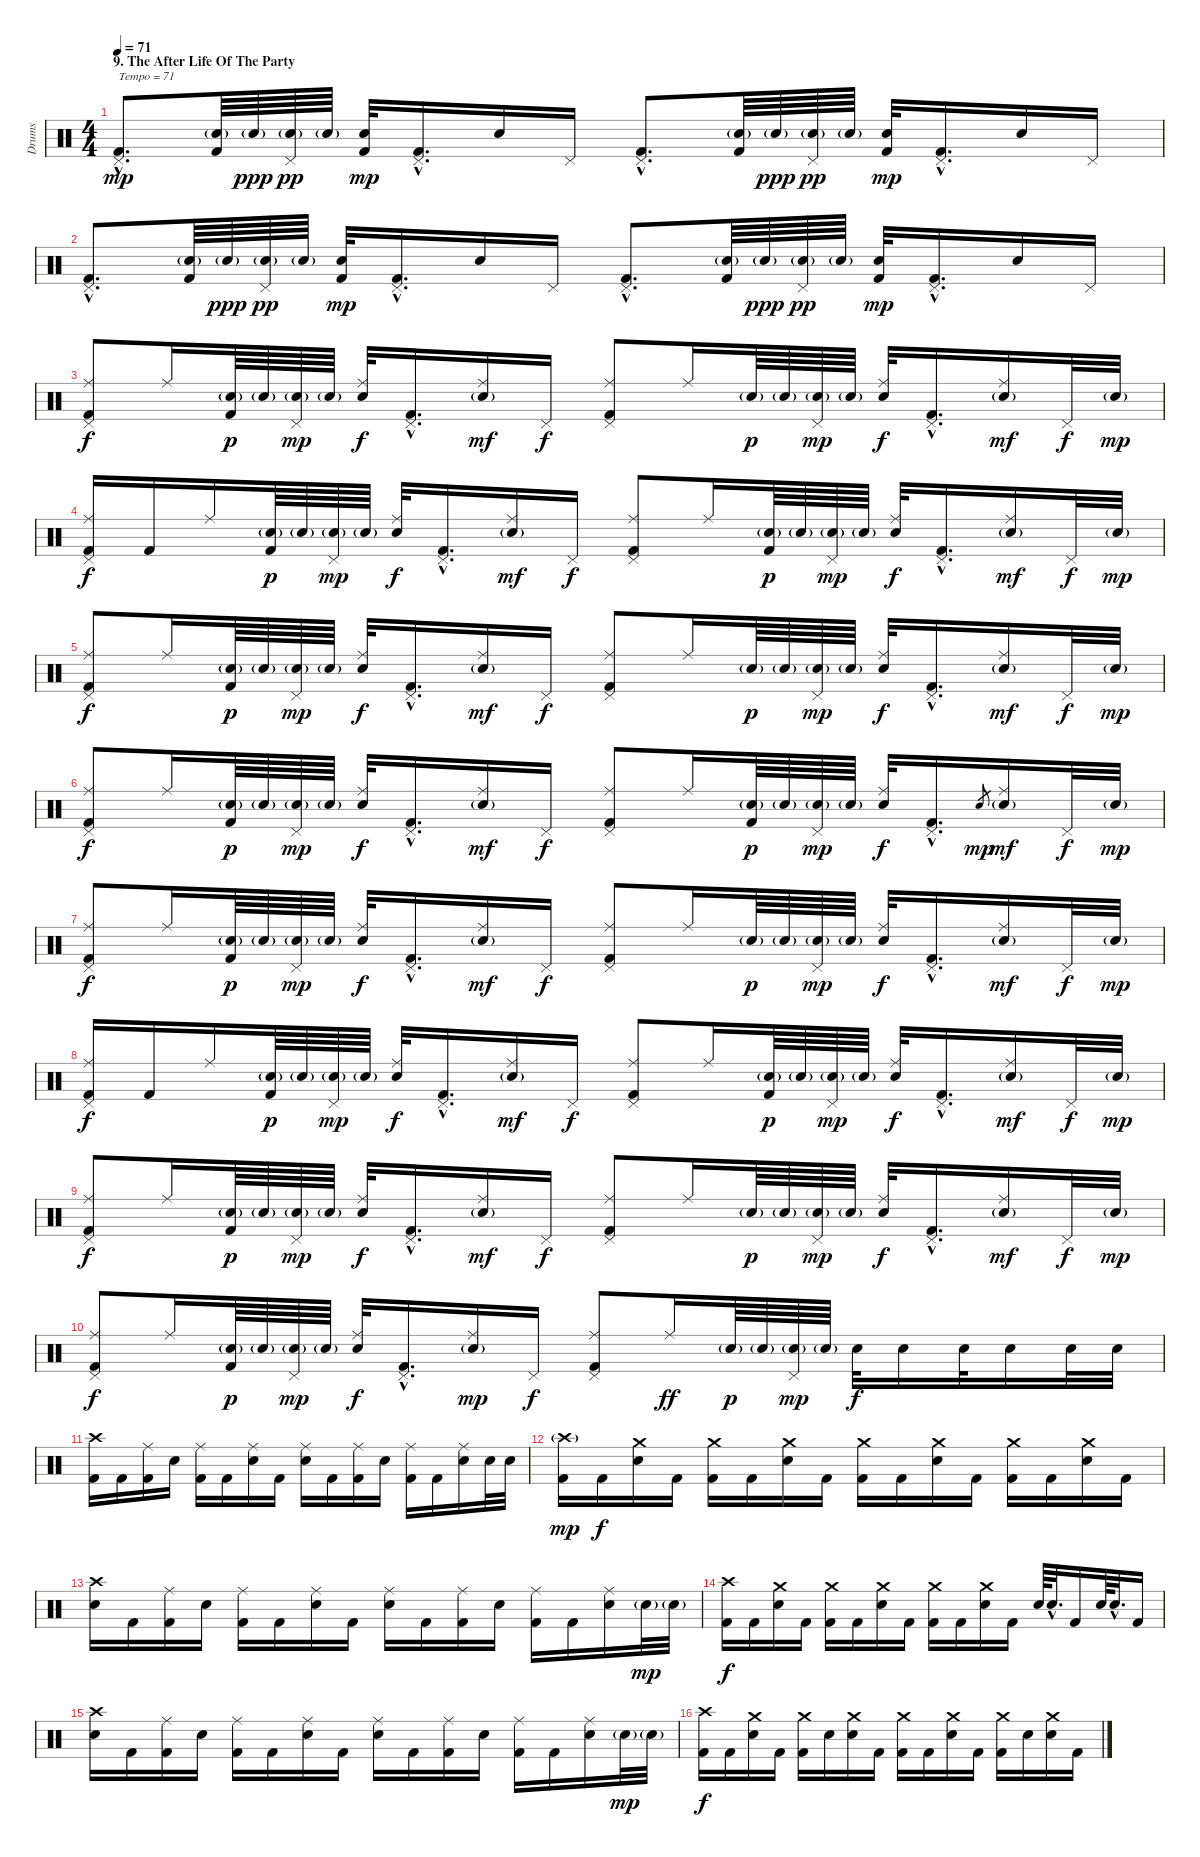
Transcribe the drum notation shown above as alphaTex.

\track ("Drums" "Drums") {instrument percussion}
\staff {score}
\articulation defaults
\ts (4 4)
\section ("" "9. The After Life Of The Party")
\tempo 71
\clef neutral
\ks c
("Pedal Hi-Hat (hit)"{hac} "Kick (hit) 2"{hac}).8{d txt "Tempo = 71" dy mp} ("Snare (hit) 2"{g} "Kick (hit) 2").64 "Snare (hit) 2"{g}.64{dy ppp} ("Pedal Hi-Hat (hit)" "Snare (hit) 2"{g}).64{dy pp} "Snare (hit) 2"{g}.64 ("Snare (hit) 2" "Kick (hit) 2").32{dy mp} ("Pedal Hi-Hat (hit)"{hac} "Kick (hit) 2"{hac}).16{d} "Snare (hit) 2".16 "Pedal Hi-Hat (hit)".16 ("Pedal Hi-Hat (hit)"{hac} "Kick (hit) 2"{hac}).8{d} ("Snare (hit) 2"{g} "Kick (hit) 2").64 "Snare (hit) 2"{g}.64{dy ppp} ("Pedal Hi-Hat (hit)" "Snare (hit) 2"{g}).64{dy pp} "Snare (hit) 2"{g}.64 ("Snare (hit) 2" "Kick (hit) 2").32{dy mp} ("Pedal Hi-Hat (hit)"{hac} "Kick (hit) 2"{hac}).16{d} "Snare (hit) 2".16 "Pedal Hi-Hat (hit)".16 |
("Pedal Hi-Hat (hit)"{hac} "Kick (hit) 2"{hac}).8{d} ("Snare (hit) 2"{g} "Kick (hit) 2").64 "Snare (hit) 2"{g}.64{dy ppp} ("Pedal Hi-Hat (hit)" "Snare (hit) 2"{g}).64{dy pp} "Snare (hit) 2"{g}.64 ("Snare (hit) 2" "Kick (hit) 2").32{dy mp} ("Pedal Hi-Hat (hit)"{hac} "Kick (hit) 2"{hac}).16{d} "Snare (hit) 2".16 "Pedal Hi-Hat (hit)".16 ("Pedal Hi-Hat (hit)"{hac} "Kick (hit) 2"{hac}).8{d} ("Snare (hit) 2"{g} "Kick (hit) 2").64 "Snare (hit) 2"{g}.64{dy ppp} ("Pedal Hi-Hat (hit)" "Snare (hit) 2"{g}).64{dy pp} "Snare (hit) 2"{g}.64 ("Snare (hit) 2" "Kick (hit) 2").32{dy mp} ("Pedal Hi-Hat (hit)"{hac} "Kick (hit) 2"{hac}).16{d} "Snare (hit) 2".16 "Pedal Hi-Hat (hit)".16 |
("Ride (middle)" "Pedal Hi-Hat (hit)" "Kick (hit) 2").8{dy f} "Ride (middle)".16 ("Snare (hit) 2"{g} "Kick (hit) 2").64{dy p} "Snare (hit) 2"{g}.64 ("Pedal Hi-Hat (hit)" "Snare (hit) 2"{g}).64{dy mp} "Snare (hit) 2"{g}.64 ("Ride (middle)" "Snare (hit) 2").32{dy f} ("Pedal Hi-Hat (hit)"{hac} "Kick (hit) 2"{hac}).16{d} ("Ride (middle)" "Snare (hit) 2"{g}).16{dy mf} "Pedal Hi-Hat (hit)".16{dy f} ("Ride (middle)" "Pedal Hi-Hat (hit)" "Kick (hit) 2").8 "Ride (middle)".16 "Snare (hit) 2"{g}.64{dy p} "Snare (hit) 2"{g}.64 ("Pedal Hi-Hat (hit)" "Snare (hit) 2"{g}).64{dy mp} "Snare (hit) 2"{g}.64 ("Ride (middle)" "Snare (hit) 2").32{dy f} ("Pedal Hi-Hat (hit)"{hac} "Kick (hit) 2"{hac}).16{d} ("Ride (middle)" "Snare (hit) 2"{g}).16{dy mf} "Pedal Hi-Hat (hit)".32{dy f} "Snare (hit) 2"{g}.32{dy mp} |
("Ride (middle)" "Pedal Hi-Hat (hit)" "Kick (hit) 2").16{dy f} "Kick (hit) 2".16 "Ride (middle)".16 ("Snare (hit) 2"{g} "Kick (hit) 2").64{dy p} "Snare (hit) 2"{g}.64 ("Pedal Hi-Hat (hit)" "Snare (hit) 2"{g}).64{dy mp} "Snare (hit) 2"{g}.64 ("Ride (middle)" "Snare (hit) 2").32{dy f} ("Pedal Hi-Hat (hit)"{hac} "Kick (hit) 2"{hac}).16{d} ("Ride (middle)" "Snare (hit) 2"{g}).16{dy mf} "Pedal Hi-Hat (hit)".16{dy f} ("Ride (middle)" "Pedal Hi-Hat (hit)" "Kick (hit) 2").8 "Ride (middle)".16 ("Snare (hit) 2"{g} "Kick (hit) 2").64{dy p} "Snare (hit) 2"{g}.64 ("Pedal Hi-Hat (hit)" "Snare (hit) 2"{g}).64{dy mp} "Snare (hit) 2"{g}.64 ("Ride (middle)" "Snare (hit) 2").32{dy f} ("Pedal Hi-Hat (hit)"{hac} "Kick (hit) 2"{hac}).16{d} ("Ride (middle)" "Snare (hit) 2"{g}).16{dy mf} "Pedal Hi-Hat (hit)".32{dy f} "Snare (hit) 2"{g}.32{dy mp} |
("Ride (middle)" "Pedal Hi-Hat (hit)" "Kick (hit) 2").8{dy f} "Ride (middle)".16 ("Snare (hit) 2"{g} "Kick (hit) 2").64{dy p} "Snare (hit) 2"{g}.64 ("Pedal Hi-Hat (hit)" "Snare (hit) 2"{g}).64{dy mp} "Snare (hit) 2"{g}.64 ("Ride (middle)" "Snare (hit) 2").32{dy f} ("Pedal Hi-Hat (hit)"{hac} "Kick (hit) 2"{hac}).16{d} ("Ride (middle)" "Snare (hit) 2"{g}).16{dy mf} "Pedal Hi-Hat (hit)".16{dy f} ("Ride (middle)" "Pedal Hi-Hat (hit)" "Kick (hit) 2").8 "Ride (middle)".16 "Snare (hit) 2"{g}.64{dy p} "Snare (hit) 2"{g}.64 ("Pedal Hi-Hat (hit)" "Snare (hit) 2"{g}).64{dy mp} "Snare (hit) 2"{g}.64 ("Ride (middle)" "Snare (hit) 2").32{dy f} ("Pedal Hi-Hat (hit)"{hac} "Kick (hit) 2"{hac}).16{d} ("Ride (middle)" "Snare (hit) 2"{g}).16{dy mf} "Pedal Hi-Hat (hit)".32{dy f} "Snare (hit) 2"{g}.32{dy mp} |
("Ride (middle)" "Pedal Hi-Hat (hit)" "Kick (hit) 2").8{dy f} "Ride (middle)".16 ("Snare (hit) 2"{g} "Kick (hit) 2").64{dy p} "Snare (hit) 2"{g}.64 ("Pedal Hi-Hat (hit)" "Snare (hit) 2"{g}).64{dy mp} "Snare (hit) 2"{g}.64 ("Ride (middle)" "Snare (hit) 2").32{dy f} ("Pedal Hi-Hat (hit)"{hac} "Kick (hit) 2"{hac}).16{d} ("Ride (middle)" "Snare (hit) 2"{g}).16{dy mf} "Pedal Hi-Hat (hit)".16{dy f} ("Ride (middle)" "Pedal Hi-Hat (hit)" "Kick (hit) 2").8 "Ride (middle)".16 ("Snare (hit) 2"{g} "Kick (hit) 2").64{dy p} "Snare (hit) 2"{g}.64 ("Pedal Hi-Hat (hit)" "Snare (hit) 2"{g}).64{dy mp} "Snare (hit) 2"{g}.64 ("Ride (middle)" "Snare (hit) 2").32{dy f} ("Pedal Hi-Hat (hit)"{hac} "Kick (hit) 2"{hac}).16{d} "Snare (hit) 2".8{gr dy mp} ("Ride (middle)" "Snare (hit) 2"{g}).16{dy mf} "Pedal Hi-Hat (hit)".32{dy f} "Snare (hit) 2"{g}.32{dy mp} |
("Ride (middle)" "Pedal Hi-Hat (hit)" "Kick (hit) 2").8{dy f} "Ride (middle)".16 ("Snare (hit) 2"{g} "Kick (hit) 2").64{dy p} "Snare (hit) 2"{g}.64 ("Pedal Hi-Hat (hit)" "Snare (hit) 2"{g}).64{dy mp} "Snare (hit) 2"{g}.64 ("Ride (middle)" "Snare (hit) 2").32{dy f} ("Pedal Hi-Hat (hit)"{hac} "Kick (hit) 2"{hac}).16{d} ("Ride (middle)" "Snare (hit) 2"{g}).16{dy mf} "Pedal Hi-Hat (hit)".16{dy f} ("Ride (middle)" "Pedal Hi-Hat (hit)" "Kick (hit) 2").8 "Ride (middle)".16 "Snare (hit) 2"{g}.64{dy p} "Snare (hit) 2"{g}.64 ("Pedal Hi-Hat (hit)" "Snare (hit) 2"{g}).64{dy mp} "Snare (hit) 2"{g}.64 ("Ride (middle)" "Snare (hit) 2").32{dy f} ("Pedal Hi-Hat (hit)"{hac} "Kick (hit) 2"{hac}).16{d} ("Ride (middle)" "Snare (hit) 2"{g}).16{dy mf} "Pedal Hi-Hat (hit)".32{dy f} "Snare (hit) 2"{g}.32{dy mp} |
("Ride (middle)" "Pedal Hi-Hat (hit)" "Kick (hit) 2").16{dy f} "Kick (hit) 2".16 "Ride (middle)".16 ("Snare (hit) 2"{g} "Kick (hit) 2").64{dy p} "Snare (hit) 2"{g}.64 ("Pedal Hi-Hat (hit)" "Snare (hit) 2"{g}).64{dy mp} "Snare (hit) 2"{g}.64 ("Ride (middle)" "Snare (hit) 2").32{dy f} ("Pedal Hi-Hat (hit)"{hac} "Kick (hit) 2"{hac}).16{d} ("Ride (middle)" "Snare (hit) 2"{g}).16{dy mf} "Pedal Hi-Hat (hit)".16{dy f} ("Ride (middle)" "Pedal Hi-Hat (hit)" "Kick (hit) 2").8 "Ride (middle)".16 ("Snare (hit) 2"{g} "Kick (hit) 2").64{dy p} "Snare (hit) 2"{g}.64 ("Pedal Hi-Hat (hit)" "Snare (hit) 2"{g}).64{dy mp} "Snare (hit) 2"{g}.64 ("Ride (middle)" "Snare (hit) 2").32{dy f} ("Pedal Hi-Hat (hit)"{hac} "Kick (hit) 2"{hac}).16{d} ("Ride (middle)" "Snare (hit) 2"{g}).16{dy mf} "Pedal Hi-Hat (hit)".32{dy f} "Snare (hit) 2"{g}.32{dy mp} |
("Ride (middle)" "Pedal Hi-Hat (hit)" "Kick (hit) 2").8{dy f} "Ride (middle)".16 ("Snare (hit) 2"{g} "Kick (hit) 2").64{dy p} "Snare (hit) 2"{g}.64 ("Pedal Hi-Hat (hit)" "Snare (hit) 2"{g}).64{dy mp} "Snare (hit) 2"{g}.64 ("Ride (middle)" "Snare (hit) 2").32{dy f} ("Pedal Hi-Hat (hit)"{hac} "Kick (hit) 2"{hac}).16{d} ("Ride (middle)" "Snare (hit) 2"{g}).16{dy mf} "Pedal Hi-Hat (hit)".16{dy f} ("Ride (middle)" "Pedal Hi-Hat (hit)" "Kick (hit) 2").8 "Ride (middle)".16 "Snare (hit) 2"{g}.64{dy p} "Snare (hit) 2"{g}.64 ("Pedal Hi-Hat (hit)" "Snare (hit) 2"{g}).64{dy mp} "Snare (hit) 2"{g}.64 ("Ride (middle)" "Snare (hit) 2").32{dy f} ("Pedal Hi-Hat (hit)"{hac} "Kick (hit) 2"{hac}).16{d} ("Ride (middle)" "Snare (hit) 2"{g}).16{dy mf} "Pedal Hi-Hat (hit)".32{dy f} "Snare (hit) 2"{g}.32{dy mp} |
("Ride (middle)" "Pedal Hi-Hat (hit)" "Kick (hit) 2").8{dy f} "Ride (middle)".16 ("Snare (hit) 2"{g} "Kick (hit) 2").64{dy p} "Snare (hit) 2"{g}.64 ("Pedal Hi-Hat (hit)" "Snare (hit) 2"{g}).64{dy mp} "Snare (hit) 2"{g}.64 ("Ride (middle)" "Snare (hit) 2").32{dy f} ("Pedal Hi-Hat (hit)"{hac} "Kick (hit) 2"{hac}).16{d} ("Ride (middle)" "Snare (hit) 2"{g}).16{dy mp} "Pedal Hi-Hat (hit)".16{dy f} ("Ride (middle)" "Pedal Hi-Hat (hit)" "Kick (hit) 2").8 "Ride (middle)".16{dy ff} "Snare (hit) 2"{g}.64{dy p} "Snare (hit) 2"{g}.64 ("Pedal Hi-Hat (hit)" "Snare (hit) 2"{g}).64{dy mp} "Snare (hit) 2"{g}.64 "Snare (hit) 2".32{dy f} "Snare (hit) 2".16 "Snare (hit) 2".32 "Snare (hit) 2".16 "Snare (hit) 2".32 "Snare (hit) 2".32 |
("Crash high (hit)" "Kick (hit) 2").16 "Kick (hit) 2".16 ("Ride (middle)" "Kick (hit) 2").16 "Snare (hit) 2".16 ("Ride (middle)" "Kick (hit) 2").16 "Kick (hit) 2".16 ("Ride (middle)" "Snare (hit) 2").16 "Kick (hit) 2".16 ("Ride (middle)" "Snare (hit) 2").16 "Kick (hit) 2".16 ("Ride (middle)" "Kick (hit) 2").16 "Snare (hit) 2".16 ("Ride (middle)" "Kick (hit) 2").16 "Kick (hit) 2".16 ("Ride (middle)" "Snare (hit) 2").16 "Snare (hit) 2".32 "Snare (hit) 2".32 |
("Crash high (hit)"{g} "Kick (hit) 2").16{dy mp} "Kick (hit) 2".16{dy f} ("Crash medium (hit)" "Snare (hit) 2").16 "Kick (hit) 2".16 ("Crash medium (hit)" "Kick (hit) 2").16 "Kick (hit) 2".16 ("Crash medium (hit)" "Snare (hit) 2").16 "Kick (hit) 2".16 ("Crash medium (hit)" "Kick (hit) 2").16 "Kick (hit) 2".16 ("Crash medium (hit)" "Snare (hit) 2").16 "Kick (hit) 2".16 ("Crash medium (hit)" "Kick (hit) 2").16 "Kick (hit) 2".16 ("Crash medium (hit)" "Snare (hit) 2").16 "Kick (hit) 2".16 |
("Crash high (hit)" "Snare (hit) 2").16 "Kick (hit) 2".16 ("Ride (middle)" "Kick (hit) 2").16 "Snare (hit) 2".16 ("Ride (middle)" "Kick (hit) 2").16 "Kick (hit) 2".16 ("Ride (middle)" "Snare (hit) 2").16 "Kick (hit) 2".16 ("Ride (middle)" "Snare (hit) 2").16 "Kick (hit) 2".16 ("Ride (middle)" "Kick (hit) 2").16 "Snare (hit) 2".16 ("Ride (middle)" "Kick (hit) 2").16 "Kick (hit) 2".16 ("Ride (middle)" "Snare (hit) 2").16 "Snare (hit) 2"{g}.32{dy mp} "Snare (hit) 2"{g}.32 |
("Crash high (hit)" "Kick (hit) 2").16{dy f} "Kick (hit) 2".16 ("Crash medium (hit)" "Snare (hit) 2").16 "Kick (hit) 2".16 ("Crash medium (hit)" "Kick (hit) 2").16 "Kick (hit) 2".16 ("Crash medium (hit)" "Snare (hit) 2").16 "Kick (hit) 2".16 ("Crash medium (hit)" "Kick (hit) 2").16 "Kick (hit) 2".16 ("Crash medium (hit)" "Snare (hit) 2").16 "Kick (hit) 2".16 "Snare (hit) 2".64 "Snare (hit) 2"{hac}.32{d} "Kick (hit) 2".16 "Snare (hit) 2".64 "Snare (hit) 2"{hac}.32{d} "Kick (hit) 2".16 |
("Crash high (hit)" "Snare (hit) 2").16 "Kick (hit) 2".16 ("Ride (middle)" "Kick (hit) 2").16 "Snare (hit) 2".16 ("Ride (middle)" "Kick (hit) 2").16 "Kick (hit) 2".16 ("Ride (middle)" "Snare (hit) 2").16 "Kick (hit) 2".16 ("Ride (middle)" "Snare (hit) 2").16 "Kick (hit) 2".16 ("Ride (middle)" "Kick (hit) 2").16 "Snare (hit) 2".16 ("Ride (middle)" "Kick (hit) 2").16 "Kick (hit) 2".16 ("Ride (middle)" "Snare (hit) 2").16 "Snare (hit) 2"{g}.32{dy mp} "Snare (hit) 2"{g}.32 |
("Crash high (hit)" "Kick (hit) 2").16{dy f} "Kick (hit) 2".16 ("Crash medium (hit)" "Snare (hit) 2").16 "Kick (hit) 2".16 ("Crash medium (hit)" "Kick (hit) 2").16 "Snare (hit) 2".16 ("Crash medium (hit)" "Snare (hit) 2").16 "Kick (hit) 2".16 ("Crash medium (hit)" "Kick (hit) 2").16 "Kick (hit) 2".16 ("Crash medium (hit)" "Snare (hit) 2").16 "Kick (hit) 2".16 ("Crash medium (hit)" "Kick (hit) 2").16 "Snare (hit) 2".16 ("Crash medium (hit)" "Snare (hit) 2").16 "Kick (hit) 2".16
